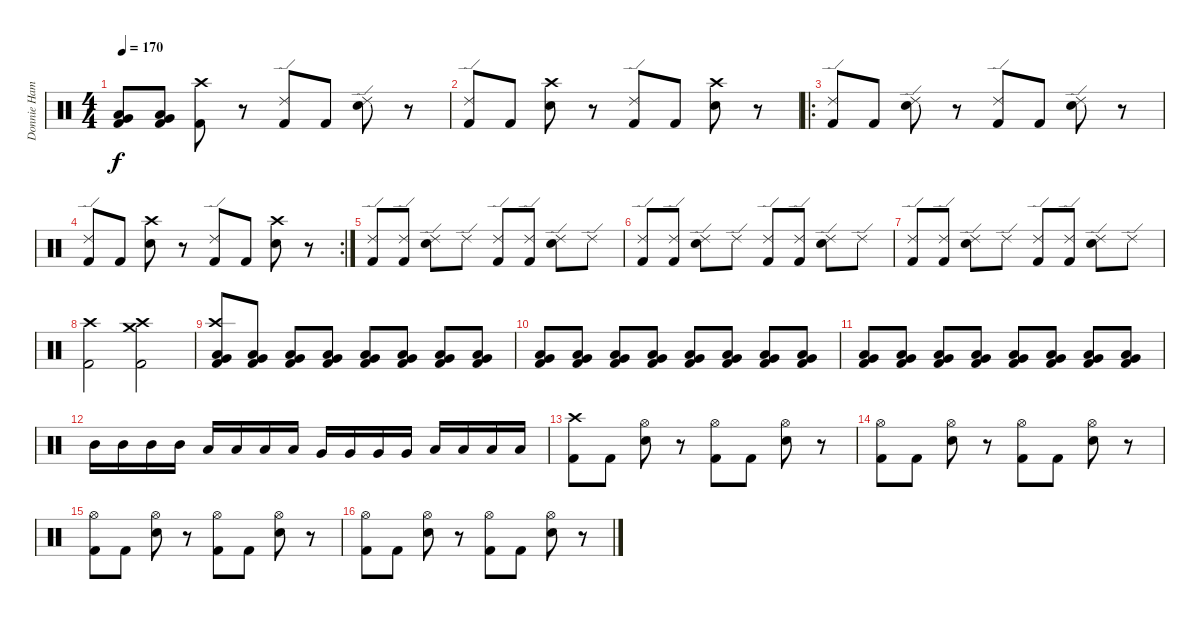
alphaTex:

\track ("Donnie Hamzik(Drums)" "Donnie Ham") {instrument percussion}
\staff {score}
\articulation defaults
\ts (4 4)
\tempo 170
\clef neutral
\ks c
("Low Floor Tom (hit)" "Very Low Tom (hit)" "Kick (hit) 2").8{dy f} ("Very Low Tom (hit)" "Low Floor Tom (hit)" "Kick (hit) 2").8 ("Crash high (hit)" "Kick (hit) 2").8 r.8 ("Ride (edge) 2" "Kick (hit) 2").8 "Kick (hit) 2".8 ("Snare (hit) 2" "Ride (edge) 2").8 r.8 |
("Ride (edge) 2" "Kick (hit) 2").8 "Kick (hit) 2".8 ("Snare (hit) 2" "Crash high (hit)").8 r.8 ("Ride (edge) 2" "Kick (hit) 2").8 "Kick (hit) 2".8 ("Snare (hit) 2" "Crash high (hit)").8 r.8 |
\ro
("Ride (edge) 2" "Kick (hit) 2").8 "Kick (hit) 2".8 ("Snare (hit) 2" "Ride (edge) 2").8 r.8 ("Ride (edge) 2" "Kick (hit) 2").8 "Kick (hit) 2".8 ("Snare (hit) 2" "Ride (edge) 2").8 r.8 |
\rc 2
("Ride (edge) 2" "Kick (hit) 2").8 "Kick (hit) 2".8 ("Snare (hit) 2" "Crash high (hit)").8 r.8 ("Ride (edge) 2" "Kick (hit) 2").8 "Kick (hit) 2".8 ("Snare (hit) 2" "Crash high (hit)").8 r.8 |
("Ride (edge) 2" "Kick (hit) 2").8 ("Ride (edge) 2" "Kick (hit) 2").8 ("Snare (hit) 2" "Ride (edge) 2").8 "Ride (edge) 2".8 ("Ride (edge) 2" "Kick (hit) 2").8 ("Ride (edge) 2" "Kick (hit) 2").8 ("Snare (hit) 2" "Ride (edge) 2").8 "Ride (edge) 2".8 |
("Ride (edge) 2" "Kick (hit) 2").8 ("Ride (edge) 2" "Kick (hit) 2").8 ("Snare (hit) 2" "Ride (edge) 2").8 "Ride (edge) 2".8 ("Ride (edge) 2" "Kick (hit) 2").8 ("Ride (edge) 2" "Kick (hit) 2").8 ("Snare (hit) 2" "Ride (edge) 2").8 "Ride (edge) 2".8 |
("Ride (edge) 2" "Kick (hit) 2").8 ("Ride (edge) 2" "Kick (hit) 2").8 ("Snare (hit) 2" "Ride (edge) 2").8 "Ride (edge) 2".8 ("Ride (edge) 2" "Kick (hit) 2").8 ("Ride (edge) 2" "Kick (hit) 2").8 ("Snare (hit) 2" "Ride (edge) 2").8 "Ride (edge) 2".8 |
("Crash high (hit)" "Kick (hit) 2").2 ("Crash medium (hit)" "Crash high (hit)" "Kick (hit) 2").2 |
("Crash high (hit)" "Kick (hit) 2" "Low Tom (hit)" "Very Low Tom (hit)").8 ("Kick (hit) 2" "Low Tom (hit)" "Very Low Tom (hit)").8 ("Kick (hit) 2" "Low Tom (hit)" "Very Low Tom (hit)").8 ("Kick (hit) 2" "Low Tom (hit)" "Very Low Tom (hit)").8 ("Kick (hit) 2" "Low Tom (hit)" "Very Low Tom (hit)").8 ("Kick (hit) 2" "Low Tom (hit)" "Very Low Tom (hit)").8 ("Kick (hit) 2" "Low Tom (hit)" "Very Low Tom (hit)").8 ("Kick (hit) 2" "Low Tom (hit)" "Very Low Tom (hit)").8 |
("Kick (hit) 2" "Low Tom (hit)" "Very Low Tom (hit)").8 ("Kick (hit) 2" "Low Tom (hit)" "Very Low Tom (hit)").8 ("Kick (hit) 2" "Low Tom (hit)" "Very Low Tom (hit)").8 ("Kick (hit) 2" "Low Tom (hit)" "Very Low Tom (hit)").8 ("Kick (hit) 2" "Low Tom (hit)" "Very Low Tom (hit)").8 ("Kick (hit) 2" "Low Tom (hit)" "Very Low Tom (hit)").8 ("Kick (hit) 2" "Low Tom (hit)" "Very Low Tom (hit)").8 ("Kick (hit) 2" "Low Tom (hit)" "Very Low Tom (hit)").8 |
("Kick (hit) 2" "Low Tom (hit)" "Very Low Tom (hit)").8 ("Kick (hit) 2" "Low Tom (hit)" "Very Low Tom (hit)").8 ("Kick (hit) 2" "Low Tom (hit)" "Very Low Tom (hit)").8 ("Kick (hit) 2" "Low Tom (hit)" "Very Low Tom (hit)").8 ("Kick (hit) 2" "Low Tom (hit)" "Very Low Tom (hit)").8 ("Kick (hit) 2" "Low Tom (hit)" "Very Low Tom (hit)").8 ("Kick (hit) 2" "Low Tom (hit)" "Very Low Tom (hit)").8 ("Kick (hit) 2" "Low Tom (hit)" "Very Low Tom (hit)").8 |
"Mid Tom (hit)".16 "Mid Tom (hit)".16 "Mid Tom (hit)".16 "Mid Tom (hit)".16 "Low Tom (hit)".16 "Low Tom (hit)".16 "Low Tom (hit)".16 "Low Tom (hit)".16 "Very Low Tom (hit)".16 "Very Low Tom (hit)".16 "Very Low Tom (hit)".16 "Very Low Tom (hit)".16 "Low Floor Tom (hit)".16 "Low Floor Tom (hit)".16 "Low Floor Tom (hit)".16 "Low Floor Tom (hit)".16 |
("Crash high (hit)" "Kick (hit) 2").8 "Kick (hit) 2".8 ("Hi-Hat (open)" "Snare (hit) 2").8 r.8 ("Hi-Hat (open)" "Kick (hit) 2").8 "Kick (hit) 2".8 ("Hi-Hat (open)" "Snare (hit) 2").8 r.8 |
("Hi-Hat (open)" "Kick (hit) 2").8 "Kick (hit) 2".8 ("Hi-Hat (open)" "Snare (hit) 2").8 r.8 ("Hi-Hat (open)" "Kick (hit) 2").8 "Kick (hit) 2".8 ("Hi-Hat (open)" "Snare (hit) 2").8 r.8 |
("Hi-Hat (open)" "Kick (hit) 2").8 "Kick (hit) 2".8 ("Hi-Hat (open)" "Snare (hit) 2").8 r.8 ("Hi-Hat (open)" "Kick (hit) 2").8 "Kick (hit) 2".8 ("Hi-Hat (open)" "Snare (hit) 2").8 r.8 |
("Hi-Hat (open)" "Kick (hit) 2").8 "Kick (hit) 2".8 ("Hi-Hat (open)" "Snare (hit) 2").8 r.8 ("Hi-Hat (open)" "Kick (hit) 2").8 "Kick (hit) 2".8 ("Hi-Hat (open)" "Snare (hit) 2").8 r.8
